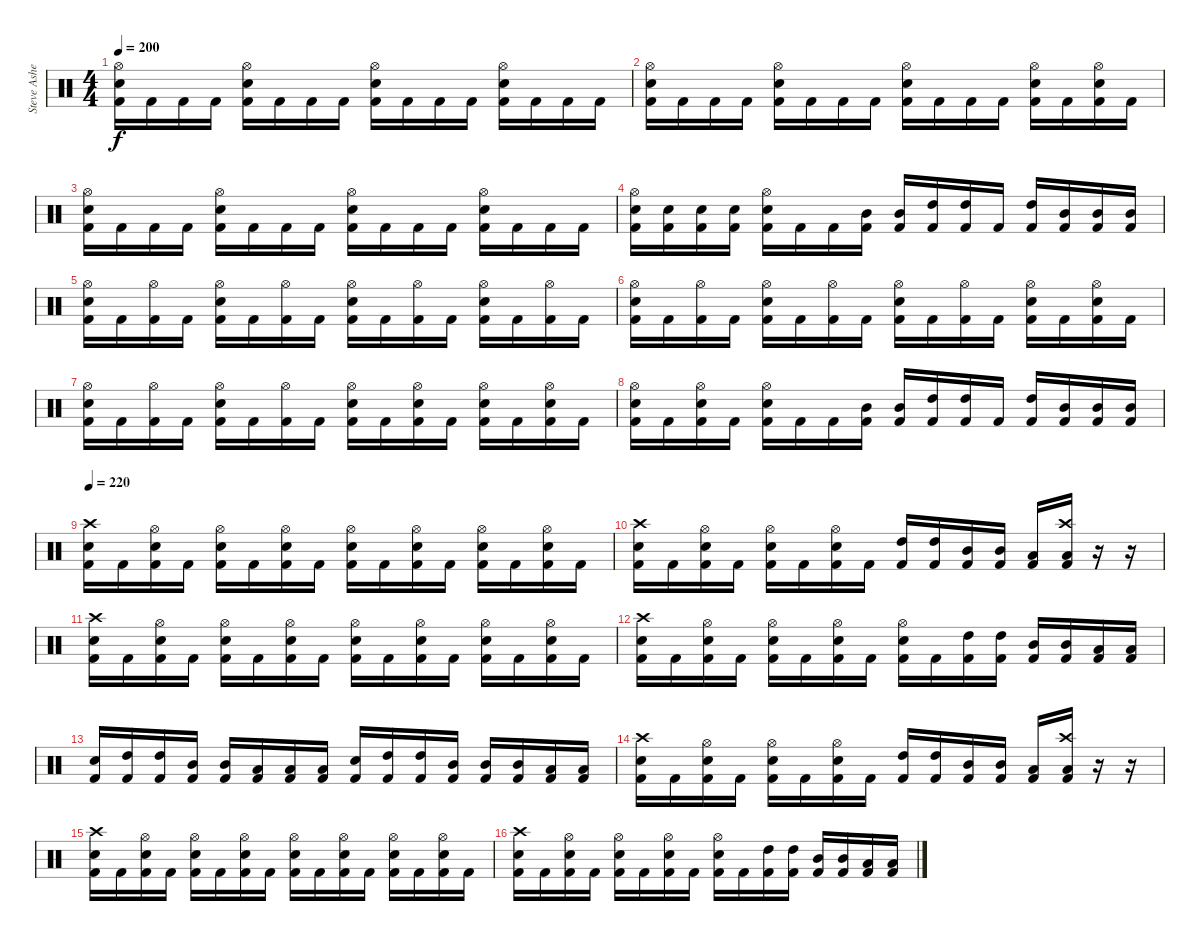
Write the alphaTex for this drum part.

\track ("Steve Asheim" "Steve Ashe") {instrument percussion}
\staff {score}
\articulation defaults
\ts (4 4)
\tempo 200
\clef neutral
\ks c
("Hi-Hat (open)" "Electric Snare (hit)" "Kick (hit) 2").16{dy f} "Kick (hit) 2".16 "Kick (hit) 2".16 "Kick (hit) 2".16 ("Hi-Hat (open)" "Electric Snare (hit)" "Kick (hit) 2").16 "Kick (hit) 2".16 "Kick (hit) 2".16 "Kick (hit) 2".16 ("Hi-Hat (open)" "Electric Snare (hit)" "Kick (hit) 2").16 "Kick (hit) 2".16 "Kick (hit) 2".16 "Kick (hit) 2".16 ("Hi-Hat (open)" "Electric Snare (hit)" "Kick (hit) 2").16 "Kick (hit) 2".16 "Kick (hit) 2".16 "Kick (hit) 2".16 |
("Hi-Hat (open)" "Electric Snare (hit)" "Kick (hit) 2").16 "Kick (hit) 2".16 "Kick (hit) 2".16 "Kick (hit) 2".16 ("Hi-Hat (open)" "Electric Snare (hit)" "Kick (hit) 2").16 "Kick (hit) 2".16 "Kick (hit) 2".16 "Kick (hit) 2".16 ("Hi-Hat (open)" "Electric Snare (hit)" "Kick (hit) 2").16 "Kick (hit) 2".16 "Kick (hit) 2".16 "Kick (hit) 2".16 ("Hi-Hat (open)" "Electric Snare (hit)" "Kick (hit) 2").16 "Kick (hit) 2".16 ("Hi-Hat (open)" "Electric Snare (hit)" "Kick (hit) 2").16 "Kick (hit) 2".16 |
("Hi-Hat (open)" "Electric Snare (hit)" "Kick (hit) 2").16 "Kick (hit) 2".16 "Kick (hit) 2".16 "Kick (hit) 2".16 ("Hi-Hat (open)" "Electric Snare (hit)" "Kick (hit) 2").16 "Kick (hit) 2".16 "Kick (hit) 2".16 "Kick (hit) 2".16 ("Hi-Hat (open)" "Electric Snare (hit)" "Kick (hit) 2").16 "Kick (hit) 2".16 "Kick (hit) 2".16 "Kick (hit) 2".16 ("Hi-Hat (open)" "Electric Snare (hit)" "Kick (hit) 2").16 "Kick (hit) 2".16 "Kick (hit) 2".16 "Kick (hit) 2".16 |
("Hi-Hat (open)" "Electric Snare (hit)" "Kick (hit) 2").16 ("Snare (hit) 2" "Kick (hit) 2").16 ("Snare (hit) 2" "Kick (hit) 2").16 ("Snare (hit) 2" "Kick (hit) 2").16 ("Hi-Hat (open)" "Electric Snare (hit)" "Kick (hit) 2").16 "Kick (hit) 2".16 "Kick (hit) 2".16 ("Mid Tom (hit)" "Kick (hit) 2").16 ("Mid Tom (hit)" "Kick (hit) 2").16 ("High Tom (hit)" "Kick (hit) 2").16 ("High Tom (hit)" "Kick (hit) 2").16 "Kick (hit) 2".16 ("High Tom (hit)" "Kick (hit) 2").16 ("Mid Tom (hit)" "Kick (hit) 2").16 ("Mid Tom (hit)" "Kick (hit) 2").16 ("Mid Tom (hit)" "Kick (hit) 2").16 |
("Hi-Hat (open)" "Electric Snare (hit)" "Kick (hit) 2").16 "Kick (hit) 2".16 ("Hi-Hat (open)" "Kick (hit) 2").16 "Kick (hit) 2".16 ("Hi-Hat (open)" "Electric Snare (hit)" "Kick (hit) 2").16 "Kick (hit) 2".16 ("Hi-Hat (open)" "Kick (hit) 2").16 "Kick (hit) 2".16 ("Hi-Hat (open)" "Electric Snare (hit)" "Kick (hit) 2").16 "Kick (hit) 2".16 ("Hi-Hat (open)" "Kick (hit) 2").16 "Kick (hit) 2".16 ("Hi-Hat (open)" "Electric Snare (hit)" "Kick (hit) 2").16 "Kick (hit) 2".16 ("Hi-Hat (open)" "Kick (hit) 2").16 "Kick (hit) 2".16 |
("Hi-Hat (open)" "Electric Snare (hit)" "Kick (hit) 2").16 "Kick (hit) 2".16 ("Hi-Hat (open)" "Kick (hit) 2").16 "Kick (hit) 2".16 ("Hi-Hat (open)" "Electric Snare (hit)" "Kick (hit) 2").16 "Kick (hit) 2".16 ("Hi-Hat (open)" "Kick (hit) 2").16 "Kick (hit) 2".16 ("Hi-Hat (open)" "Electric Snare (hit)" "Kick (hit) 2").16 "Kick (hit) 2".16 ("Hi-Hat (open)" "Kick (hit) 2").16 "Kick (hit) 2".16 ("Hi-Hat (open)" "Electric Snare (hit)" "Kick (hit) 2").16 "Kick (hit) 2".16 ("Hi-Hat (open)" "Electric Snare (hit)" "Kick (hit) 2").16 "Kick (hit) 2".16 |
("Hi-Hat (open)" "Electric Snare (hit)" "Kick (hit) 2").16 "Kick (hit) 2".16 ("Hi-Hat (open)" "Kick (hit) 2").16 "Kick (hit) 2".16 ("Hi-Hat (open)" "Electric Snare (hit)" "Kick (hit) 2").16 "Kick (hit) 2".16 ("Hi-Hat (open)" "Kick (hit) 2").16 "Kick (hit) 2".16 ("Hi-Hat (open)" "Electric Snare (hit)" "Kick (hit) 2").16 "Kick (hit) 2".16 ("Hi-Hat (open)" "Electric Snare (hit)" "Kick (hit) 2").16 "Kick (hit) 2".16 ("Hi-Hat (open)" "Electric Snare (hit)" "Kick (hit) 2").16 "Kick (hit) 2".16 ("Hi-Hat (open)" "Electric Snare (hit)" "Kick (hit) 2").16 "Kick (hit) 2".16 |
("Hi-Hat (open)" "Electric Snare (hit)" "Kick (hit) 2").16 "Kick (hit) 2".16 ("Hi-Hat (open)" "Electric Snare (hit)" "Kick (hit) 2").16 "Kick (hit) 2".16 ("Hi-Hat (open)" "Electric Snare (hit)" "Kick (hit) 2").16 "Kick (hit) 2".16 "Kick (hit) 2".16 ("Mid Tom (hit)" "Kick (hit) 2").16 ("Mid Tom (hit)" "Kick (hit) 2").16 ("High Tom (hit)" "Kick (hit) 2").16 ("High Tom (hit)" "Kick (hit) 2").16 "Kick (hit) 2".16 ("High Tom (hit)" "Kick (hit) 2").16 ("Mid Tom (hit)" "Kick (hit) 2").16 ("Mid Tom (hit)" "Kick (hit) 2").16 ("Mid Tom (hit)" "Kick (hit) 2").16 |
\tempo 220
("Crash high (hit)" "Electric Snare (hit)" "Kick (hit) 2").16 "Kick (hit) 2".16 ("Hi-Hat (open)" "Electric Snare (hit)" "Kick (hit) 2").16 "Kick (hit) 2".16 ("Hi-Hat (open)" "Electric Snare (hit)" "Kick (hit) 2").16 "Kick (hit) 2".16 ("Hi-Hat (open)" "Electric Snare (hit)" "Kick (hit) 2").16 "Kick (hit) 2".16 ("Hi-Hat (open)" "Electric Snare (hit)" "Kick (hit) 2").16 "Kick (hit) 2".16 ("Hi-Hat (open)" "Electric Snare (hit)" "Kick (hit) 2").16 "Kick (hit) 2".16 ("Hi-Hat (open)" "Electric Snare (hit)" "Kick (hit) 2").16 "Kick (hit) 2".16 ("Hi-Hat (open)" "Electric Snare (hit)" "Kick (hit) 2").16 "Kick (hit) 2".16 |
("Crash high (hit)" "Electric Snare (hit)" "Kick (hit) 2").16 "Kick (hit) 2".16 ("Hi-Hat (open)" "Electric Snare (hit)" "Kick (hit) 2").16 "Kick (hit) 2".16 ("Hi-Hat (open)" "Electric Snare (hit)" "Kick (hit) 2").16 "Kick (hit) 2".16 ("Hi-Hat (open)" "Electric Snare (hit)" "Kick (hit) 2").16 "Kick (hit) 2".16 ("High Tom (hit)" "Kick (hit) 2").16 ("High Tom (hit)" "Kick (hit) 2").16 ("Mid Tom (hit)" "Kick (hit) 2").16 ("Mid Tom (hit)" "Kick (hit) 2").16 ("Low Tom (hit)" "Kick (hit) 2").16 ("Crash high (hit)" "Low Tom (hit)" "Kick (hit) 2").16 r.16 r.16 |
("Crash high (hit)" "Electric Snare (hit)" "Kick (hit) 2").16 "Kick (hit) 2".16 ("Hi-Hat (open)" "Electric Snare (hit)" "Kick (hit) 2").16 "Kick (hit) 2".16 ("Hi-Hat (open)" "Electric Snare (hit)" "Kick (hit) 2").16 "Kick (hit) 2".16 ("Hi-Hat (open)" "Electric Snare (hit)" "Kick (hit) 2").16 "Kick (hit) 2".16 ("Hi-Hat (open)" "Electric Snare (hit)" "Kick (hit) 2").16 "Kick (hit) 2".16 ("Hi-Hat (open)" "Electric Snare (hit)" "Kick (hit) 2").16 "Kick (hit) 2".16 ("Hi-Hat (open)" "Electric Snare (hit)" "Kick (hit) 2").16 "Kick (hit) 2".16 ("Hi-Hat (open)" "Electric Snare (hit)" "Kick (hit) 2").16 "Kick (hit) 2".16 |
("Crash high (hit)" "Electric Snare (hit)" "Kick (hit) 2").16 "Kick (hit) 2".16 ("Hi-Hat (open)" "Electric Snare (hit)" "Kick (hit) 2").16 "Kick (hit) 2".16 ("Hi-Hat (open)" "Electric Snare (hit)" "Kick (hit) 2").16 "Kick (hit) 2".16 ("Hi-Hat (open)" "Electric Snare (hit)" "Kick (hit) 2").16 "Kick (hit) 2".16 ("Hi-Hat (open)" "Electric Snare (hit)" "Kick (hit) 2").16 "Kick (hit) 2".16 ("High Tom (hit)" "Kick (hit) 2").16 ("High Tom (hit)" "Kick (hit) 2").16 ("Mid Tom (hit)" "Kick (hit) 2").16 ("Mid Tom (hit)" "Kick (hit) 2").16 ("Low Tom (hit)" "Kick (hit) 2").16 ("Low Tom (hit)" "Kick (hit) 2").16 |
("Electric Snare (hit)" "Kick (hit) 2").16 ("High Tom (hit)" "Kick (hit) 2").16 ("High Tom (hit)" "Kick (hit) 2").16 ("Mid Tom (hit)" "Kick (hit) 2").16 ("Mid Tom (hit)" "Kick (hit) 2").16 ("Low Tom (hit)" "Kick (hit) 2").16 ("Low Tom (hit)" "Kick (hit) 2").16 ("Low Tom (hit)" "Kick (hit) 2").16 ("Electric Snare (hit)" "Kick (hit) 2").16 ("High Tom (hit)" "Kick (hit) 2").16 ("High Tom (hit)" "Kick (hit) 2").16 ("Mid Tom (hit)" "Kick (hit) 2").16 ("Mid Tom (hit)" "Kick (hit) 2").16 ("Mid Tom (hit)" "Kick (hit) 2").16 ("Low Tom (hit)" "Kick (hit) 2").16 ("Low Tom (hit)" "Kick (hit) 2").16 |
("Crash high (hit)" "Electric Snare (hit)" "Kick (hit) 2").16 "Kick (hit) 2".16 ("Hi-Hat (open)" "Electric Snare (hit)" "Kick (hit) 2").16 "Kick (hit) 2".16 ("Hi-Hat (open)" "Electric Snare (hit)" "Kick (hit) 2").16 "Kick (hit) 2".16 ("Hi-Hat (open)" "Electric Snare (hit)" "Kick (hit) 2").16 "Kick (hit) 2".16 ("High Tom (hit)" "Kick (hit) 2").16 ("High Tom (hit)" "Kick (hit) 2").16 ("Mid Tom (hit)" "Kick (hit) 2").16 ("Mid Tom (hit)" "Kick (hit) 2").16 ("Low Tom (hit)" "Kick (hit) 2").16 ("Crash high (hit)" "Low Tom (hit)" "Kick (hit) 2").16 r.16 r.16 |
("Crash high (hit)" "Electric Snare (hit)" "Kick (hit) 2").16 "Kick (hit) 2".16 ("Hi-Hat (open)" "Electric Snare (hit)" "Kick (hit) 2").16 "Kick (hit) 2".16 ("Hi-Hat (open)" "Electric Snare (hit)" "Kick (hit) 2").16 "Kick (hit) 2".16 ("Hi-Hat (open)" "Electric Snare (hit)" "Kick (hit) 2").16 "Kick (hit) 2".16 ("Hi-Hat (open)" "Electric Snare (hit)" "Kick (hit) 2").16 "Kick (hit) 2".16 ("Hi-Hat (open)" "Electric Snare (hit)" "Kick (hit) 2").16 "Kick (hit) 2".16 ("Hi-Hat (open)" "Electric Snare (hit)" "Kick (hit) 2").16 "Kick (hit) 2".16 ("Hi-Hat (open)" "Electric Snare (hit)" "Kick (hit) 2").16 "Kick (hit) 2".16 |
("Crash high (hit)" "Electric Snare (hit)" "Kick (hit) 2").16 "Kick (hit) 2".16 ("Hi-Hat (open)" "Electric Snare (hit)" "Kick (hit) 2").16 "Kick (hit) 2".16 ("Hi-Hat (open)" "Electric Snare (hit)" "Kick (hit) 2").16 "Kick (hit) 2".16 ("Hi-Hat (open)" "Electric Snare (hit)" "Kick (hit) 2").16 "Kick (hit) 2".16 ("Hi-Hat (open)" "Electric Snare (hit)" "Kick (hit) 2").16 "Kick (hit) 2".16 ("High Tom (hit)" "Kick (hit) 2").16 ("High Tom (hit)" "Kick (hit) 2").16 ("Mid Tom (hit)" "Kick (hit) 2").16 ("Mid Tom (hit)" "Kick (hit) 2").16 ("Low Tom (hit)" "Kick (hit) 2").16 ("Low Tom (hit)" "Kick (hit) 2").16
